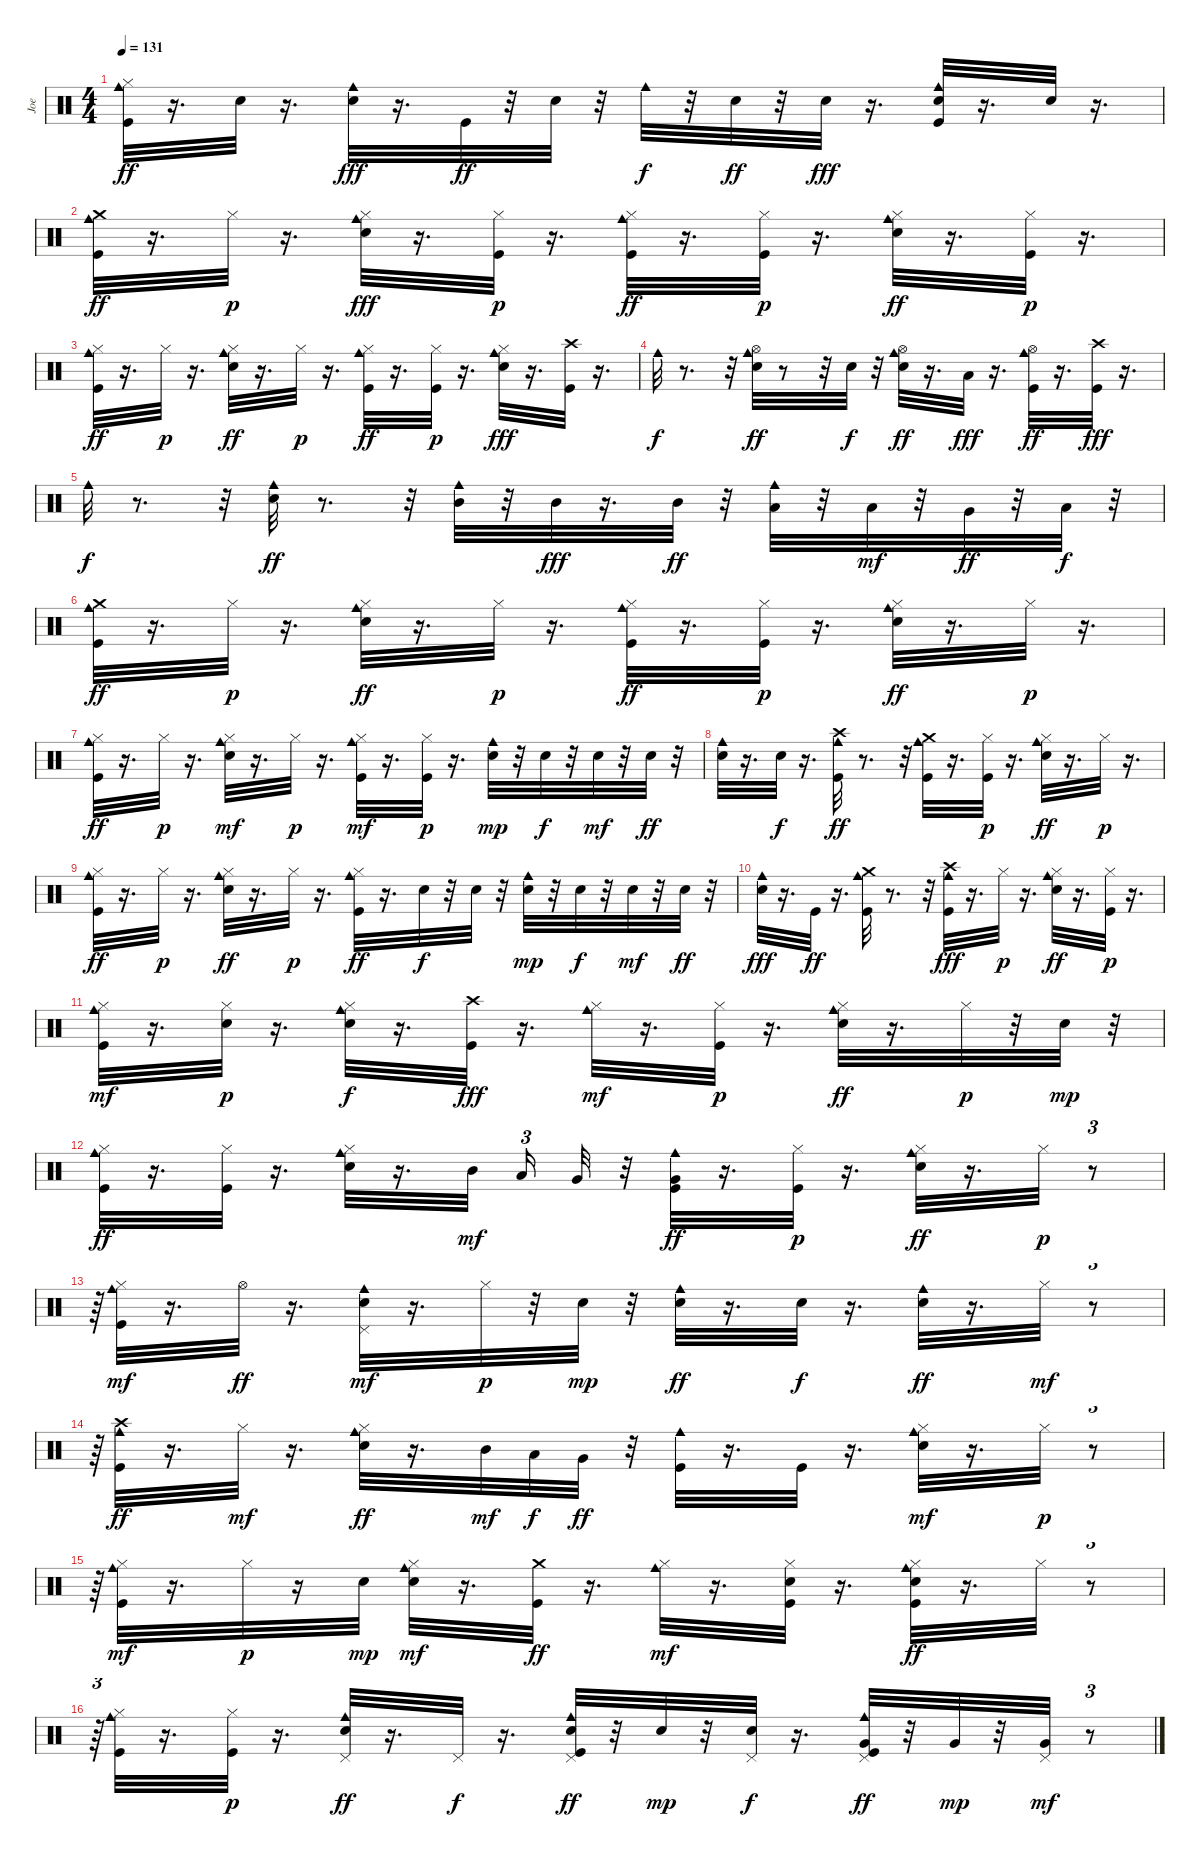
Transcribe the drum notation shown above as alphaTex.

\track ("Joe" "Joe") {instrument percussion}
\staff {score}
\articulation defaults
\ts (4 4)
\tempo 131
\clef neutral
\ks c
("Kick (hit)" "Cowbell medium (hit)" "Hi-Hat (closed)").32{dy ff} r.16{d} "Snare (hit) 2".32 r.16{d} ("Snare (hit) 2" "Cowbell medium (hit)").32{dy fff} r.16{d} "Kick (hit)".32{dy ff} r.32 "Snare (hit) 2".32 r.32 "Cowbell medium (hit)".32{dy f} r.32 "Snare (hit) 2".32{dy ff} r.32 "Snare (hit) 2".32{dy fff} r.16{d} ("Cowbell medium (hit)" "Kick (hit)" "Snare (hit) 2").32 r.16{d} "Snare (hit) 2".32 r.16{d} |
("Kick (hit)" "Crash medium (hit)" "Cowbell medium (hit)").32{dy ff} r.16{d} "Hi-Hat (closed)".32{dy p} r.16{d} ("Hi-Hat (closed)" "Snare (hit) 2" "Cowbell medium (hit)").32{dy fff} r.16{d} ("Kick (hit)" "Hi-Hat (closed)").32{dy p} r.16{d} ("Kick (hit)" "Cowbell medium (hit)" "Hi-Hat (closed)").32{dy ff} r.16{d} ("Kick (hit)" "Hi-Hat (closed)").32{dy p} r.16{d} ("Snare (hit) 2" "Cowbell medium (hit)" "Hi-Hat (closed)").32{dy ff} r.16{d} ("Kick (hit)" "Hi-Hat (closed)").32{dy p} r.16{d} |
("Kick (hit)" "Hi-Hat (closed)" "Cowbell medium (hit)").32{dy ff} r.16{d} "Hi-Hat (closed)".32{dy p} r.16{d} ("Hi-Hat (closed)" "Cowbell medium (hit)" "Snare (hit) 2").32{dy ff} r.16{d} "Hi-Hat (closed)".32{dy p} r.16{d} ("Cowbell medium (hit)" "Hi-Hat (closed)" "Kick (hit)").32{dy ff} r.16{d} ("Kick (hit)" "Hi-Hat (closed)").32{dy p} r.16{d} ("Cowbell medium (hit)" "Snare (hit) 2" "Hi-Hat (closed)").32{dy fff} r.16{d} ("Kick (hit)" "Crash high (hit)").32 r.16{d} |
"Cowbell medium (hit)".32{dy f} r.8{d} r.32 ("Cowbell medium (hit)" "Hi-Hat (open)" "Snare (hit) 2").32{dy ff} r.8 r.32 "Snare (hit) 2".32{dy f} r.32 ("Snare (hit) 2" "Cowbell medium (hit)" "Hi-Hat (open)").32{dy ff} r.16{d} "Low Tom (hit)".32{dy fff} r.16{d} ("Hi-Hat (open)" "Kick (hit)" "Cowbell medium (hit)").32{dy ff} r.16{d} ("Crash high (hit)" "Kick (hit)").32{dy fff} r.16{d} |
"Cowbell medium (hit)".32{dy f} r.8{d} r.32 ("Cowbell medium (hit)" "Snare (hit) 2").32{dy ff} r.8{d} r.32 ("Mid Tom (hit)" "Cowbell medium (hit)").32 r.32 "Mid Tom (hit)".32{dy fff} r.16{d} "Mid Tom (hit)".32{dy ff} r.32 ("Cowbell medium (hit)" "Low Tom (hit)").32 r.32 "Low Tom (hit)".32{dy mf} r.32 "Very Low Tom (hit)".32{dy ff} r.32 "Low Floor Tom (hit)".32{dy f} r.32 |
("Kick (hit)" "Crash medium (hit)" "Cowbell medium (hit)").32{dy ff} r.16{d} "Hi-Hat (closed)".32{dy p} r.16{d} ("Cowbell medium (hit)" "Hi-Hat (closed)" "Snare (hit) 2").32{dy ff} r.16{d} "Hi-Hat (closed)".32{dy p} r.16{d} ("Cowbell medium (hit)" "Hi-Hat (closed)" "Kick (hit)").32{dy ff} r.16{d} ("Kick (hit)" "Hi-Hat (closed)").32{dy p} r.16{d} ("Snare (hit) 2" "Cowbell medium (hit)" "Hi-Hat (closed)").32{dy ff} r.16{d} "Hi-Hat (closed)".32{dy p} r.16{d} |
("Hi-Hat (closed)" "Kick (hit)" "Cowbell medium (hit)").32{dy ff} r.16{d} "Hi-Hat (closed)".32{dy p} r.16{d} ("Cowbell medium (hit)" "Hi-Hat (closed)" "Snare (hit) 2").32{dy mf} r.16{d} "Hi-Hat (closed)".32{dy p} r.16{d} ("Cowbell medium (hit)" "Kick (hit)" "Hi-Hat (closed)").32{dy mf} r.16{d} ("Kick (hit)" "Hi-Hat (closed)").32{dy p} r.16{d} ("Cowbell medium (hit)" "Snare (hit) 2").32{dy mp} r.32 "Snare (hit) 2".32{dy f} r.32 "Snare (hit) 2".32{dy mf} r.32 "Snare (hit) 2".32{dy ff} r.32 |
("Snare (hit) 2" "Cowbell medium (hit)").32 r.16{d} "Snare (hit) 2".32{dy f} r.16{d} ("Crash high (hit)" "Cowbell medium (hit)" "Kick (hit)").32{dy ff} r.8{d} r.32 ("Crash medium (hit)" "Cowbell medium (hit)" "Kick (hit)").32 r.16{d} ("Kick (hit)" "Hi-Hat (closed)").32{dy p} r.16{d} ("Hi-Hat (closed)" "Cowbell medium (hit)" "Snare (hit) 2").32{dy ff} r.16{d} "Hi-Hat (closed)".32{dy p} r.16{d} |
("Kick (hit)" "Hi-Hat (closed)" "Cowbell medium (hit)").32{dy ff} r.16{d} "Hi-Hat (closed)".32{dy p} r.16{d} ("Snare (hit) 2" "Cowbell medium (hit)" "Hi-Hat (closed)").32{dy ff} r.16{d} "Hi-Hat (closed)".32{dy p} r.16{d} ("Hi-Hat (closed)" "Cowbell medium (hit)" "Kick (hit)").32{dy ff} r.16{d} "Snare (hit) 2".32{dy f} r.32 "Snare (hit) 2".32 r.32 ("Snare (hit) 2" "Cowbell medium (hit)").32{dy mp} r.32 "Snare (hit) 2".32{dy f} r.32 "Snare (hit) 2".32{dy mf} r.32 "Snare (hit) 2".32{dy ff} r.32 |
("Cowbell medium (hit)" "Snare (hit) 2").32{dy fff} r.16{d} "Kick (hit)".32{dy ff} r.16{d} ("Kick (hit)" "Crash medium (hit)" "Cowbell medium (hit)").32 r.8{d} r.32 ("Crash high (hit)" "Kick (hit)" "Cowbell medium (hit)").32{dy fff} r.16{d} "Hi-Hat (closed)".32{dy p} r.16{d} ("Cowbell medium (hit)" "Hi-Hat (closed)" "Snare (hit) 2").32{dy ff} r.16{d} ("Kick (hit)" "Hi-Hat (closed)").32{dy p} r.16{d} |
("Cowbell medium (hit)" "Kick (hit)" "Hi-Hat (closed)").32{dy mf} r.16{d} ("Snare (hit) 2" "Hi-Hat (closed)").32{dy p} r.16{d} ("Cowbell medium (hit)" "Snare (hit) 2" "Hi-Hat (closed)").32{dy f} r.16{d} ("Crash high (hit)" "Kick (hit)").32{dy fff} r.16{d} ("Cowbell medium (hit)" "Hi-Hat (closed)").32{dy mf} r.16{d} ("Kick (hit)" "Hi-Hat (closed)").32{dy p} r.16{d} ("Snare (hit) 2" "Hi-Hat (closed)" "Cowbell medium (hit)").32{dy ff} r.16{d} "Hi-Hat (closed)".32{dy p} r.32 "Snare (hit) 2".32{dy mp} r.32 |
("Cowbell medium (hit)" "Hi-Hat (closed)" "Kick (hit)").32{dy ff} r.16{d} ("Hi-Hat (closed)" "Kick (hit)").32 r.16{d} ("Hi-Hat (closed)" "Cowbell medium (hit)" "Snare (hit) 2").32 r.16{d} "Mid Tom (hit)".32{dy mf beam splitsecondary} "Low Tom (hit)".16{tu (3 2)} "Very Low Tom (hit)".32 r.32 ("Cowbell medium (hit)" "Kick (hit)" "Very Low Tom (hit)").32{dy ff} r.16{d} ("Hi-Hat (closed)" "Kick (hit)").32{dy p} r.16{d} ("Cowbell medium (hit)" "Hi-Hat (closed)" "Snare (hit) 2").32{dy ff} r.16{d} "Hi-Hat (closed)".32{dy p} r.8{tu (3 2)} |
r.64{tu (3 2)} ("Kick (hit)" "Hi-Hat (closed)" "Cowbell medium (hit)").32{dy mf} r.16{d} "Hi-Hat (open)".32{dy ff} r.16{d} ("Cowbell medium (hit)" "Pedal Hi-Hat (hit)" "Snare (hit) 2").32{dy mf} r.16{d} "Hi-Hat (closed)".32{dy p} r.32 "Snare (hit) 2".32{dy mp} r.32 ("Snare (hit) 2" "Cowbell medium (hit)").32{dy ff} r.16{d} "Snare (hit) 2".32{dy f} r.16{d} ("Snare (hit) 2" "Cowbell medium (hit)").32{dy ff} r.16{d} "Hi-Hat (closed)".32{dy mf} r.8{tu (3 2)} |
r.64{tu (3 2)} ("Cowbell medium (hit)" "Crash high (hit)" "Kick (hit)").32{dy ff} r.16{d} "Hi-Hat (closed)".32{dy mf} r.16{d} ("Snare (hit) 2" "Cowbell medium (hit)" "Hi-Hat (closed)").32{dy ff} r.16{d} "Mid Tom (hit)".32{dy mf} "Low Tom (hit)".32{dy f} "Very Low Tom (hit)".32{dy ff} r.32 ("Cowbell medium (hit)" "Kick (hit)").32 r.16{d} "Kick (hit)".32 r.16{d} ("Snare (hit) 2" "Cowbell medium (hit)" "Hi-Hat (closed)").32{dy mf} r.16{d} "Hi-Hat (closed)".32{dy p} r.8{tu (3 2)} |
r.64{tu (3 2)} ("Kick (hit)" "Cowbell medium (hit)" "Hi-Hat (closed)").32{dy mf} r.16{d} "Hi-Hat (closed)".32{dy p} r.16 "Snare (hit) 2".32{dy mp} ("Cowbell medium (hit)" "Snare (hit) 2" "Hi-Hat (closed)").32{dy mf} r.16{d} ("Crash medium (hit)" "Kick (hit)").32{dy ff} r.16{d} ("Cowbell medium (hit)" "Hi-Hat (closed)").32{dy mf} r.16{d} ("Hi-Hat (closed)" "Kick (hit)" "Snare (hit) 2").32 r.16{d} ("Cowbell medium (hit)" "Kick (hit)" "Hi-Hat (closed)" "Snare (hit) 2").32{dy ff} r.16{d} "Hi-Hat (closed)".32 r.8{tu (3 2)} |
r.64{tu (3 2)} ("Cowbell medium (hit)" "Kick (hit)" "Hi-Hat (closed)").32 r.16{d} ("Kick (hit)" "Hi-Hat (closed)").32{dy p} r.16{d} ("Snare (hit) 2" "Pedal Hi-Hat (hit)" "Cowbell medium (hit)").32{dy ff} r.16{d} "Pedal Hi-Hat (hit)".32{dy f} r.16{d} ("Kick (hit)" "Cowbell medium (hit)" "Pedal Hi-Hat (hit)" "Snare (hit) 2").32{dy ff} r.32 "Snare (hit) 2".32{dy mp} r.32 ("Snare (hit) 2" "Pedal Hi-Hat (hit)").32{dy f} r.16{d} ("Cowbell medium (hit)" "Very Low Tom (hit)" "Pedal Hi-Hat (hit)" "Kick (hit)").32{dy ff} r.32 "Very Low Tom (hit)".32{dy mp} r.32 ("Very Low Tom (hit)" "Pedal Hi-Hat (hit)").32{dy mf} r.8{tu (3 2)}
